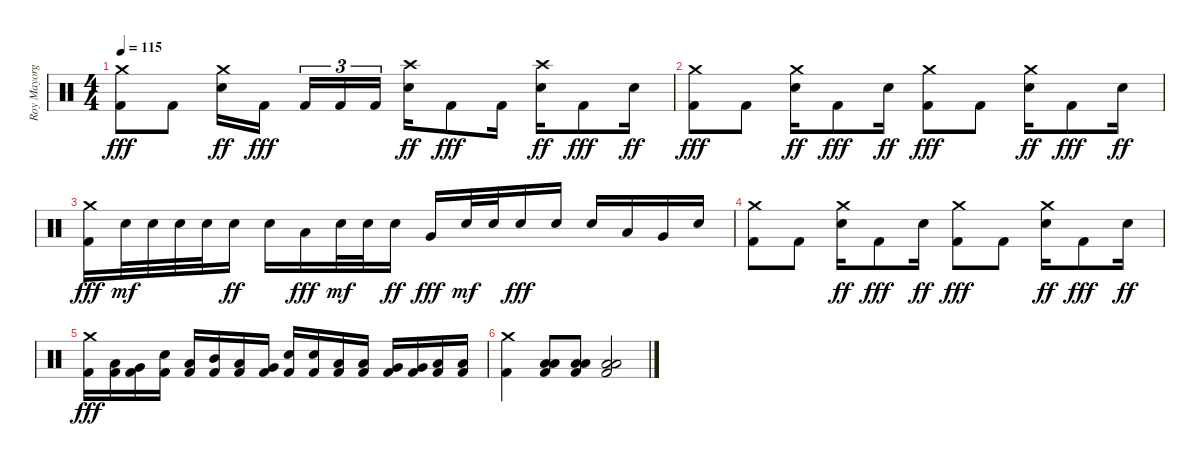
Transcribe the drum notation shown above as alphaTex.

\track ("Roy Mayorga" "Roy Mayorg") {instrument percussion}
\staff {score}
\articulation defaults
\ts (4 4)
\tempo 115
\clef neutral
\ks c
("Crash medium (hit)" "Kick (hit) 2").8{dy fff} "Kick (hit) 2".8 ("Crash medium (hit)" "Electric Snare (hit)").16{dy ff} "Kick (hit) 2".16{dy fff beam splitsecondary} "Kick (hit) 2".16{tu (3 2)} "Kick (hit) 2".16{tu (3 2)} "Kick (hit) 2".16{tu (3 2)} ("Crash high (hit)" "Electric Snare (hit)").16{dy ff} "Kick (hit) 2".8{dy fff} "Kick (hit) 2".16 ("Crash high (hit)" "Electric Snare (hit)").16{dy ff} "Kick (hit) 2".8{dy fff} "Electric Snare (hit)".16{dy ff} |
("Crash medium (hit)" "Kick (hit) 2").8{dy fff} "Kick (hit) 2".8 ("Crash medium (hit)" "Electric Snare (hit)").16{dy ff} "Kick (hit) 2".8{dy fff} "Electric Snare (hit)".16{dy ff} ("Crash medium (hit)" "Kick (hit) 2").8{dy fff} "Kick (hit) 2".8 ("Crash medium (hit)" "Electric Snare (hit)").16{dy ff} "Kick (hit) 2".8{dy fff} "Electric Snare (hit)".16{dy ff} |
("Crash medium (hit)" "Kick (hit) 2").16{dy fff} "Electric Snare (hit)".32{dy mf} "Electric Snare (hit)".32 "Electric Snare (hit)".32 "Electric Snare (hit)".32 "Electric Snare (hit)".16{dy ff} "Electric Snare (hit)".16 "Low Tom (hit)".16{dy fff} "Electric Snare (hit)".32{dy mf} "Electric Snare (hit)".32 "Electric Snare (hit)".16{dy ff} "Very Low Tom (hit)".16{dy fff} "Electric Snare (hit)".32{dy mf} "Electric Snare (hit)".32 "Electric Snare (hit)".16{dy fff} "Electric Snare (hit)".16 "Electric Snare (hit)".16 "Low Tom (hit)".16 "Very Low Tom (hit)".16 "Electric Snare (hit)".16 |
("Crash medium (hit)" "Kick (hit) 2").8 "Kick (hit) 2".8 ("Crash medium (hit)" "Electric Snare (hit)").16{dy ff} "Kick (hit) 2".8{dy fff} "Electric Snare (hit)".16{dy ff} ("Crash medium (hit)" "Kick (hit) 2").8{dy fff} "Kick (hit) 2".8 ("Crash medium (hit)" "Electric Snare (hit)").16{dy ff} "Kick (hit) 2".8{dy fff} "Electric Snare (hit)".16{dy ff} |
("Crash medium (hit)" "Kick (hit) 2").16{dy fff} ("Low Tom (hit)" "Kick (hit) 2").16 ("Very Low Tom (hit)" "Kick (hit) 2").16 ("Electric Snare (hit)" "Kick (hit) 2").16 ("Low Tom (hit)" "Kick (hit) 2").16 ("Mid Tom (hit)" "Kick (hit) 2").16 ("Low Tom (hit)" "Kick (hit) 2").16 ("Very Low Tom (hit)" "Kick (hit) 2").16 ("Electric Snare (hit)" "Kick (hit) 2").16 ("Electric Snare (hit)" "Kick (hit) 2").16 ("Low Tom (hit)" "Kick (hit) 2").16 ("Low Tom (hit)" "Kick (hit) 2").16 ("Very Low Tom (hit)" "Kick (hit) 2").16 ("Very Low Tom (hit)" "Kick (hit) 2").16 ("Low Floor Tom (hit)" "Kick (hit) 2").16 ("Low Floor Tom (hit)" "Kick (hit) 2").16 |
("Crash medium (hit)" "Kick (hit) 2").4 ("Low Floor Tom (hit)" "Low Floor Tom (hit)" "Kick (hit) 2").8 ("Low Floor Tom (hit)" "Low Floor Tom (hit)" "Kick (hit) 2").8 ("Low Floor Tom (hit)" "Low Floor Tom (hit)" "Kick (hit) 2").2
